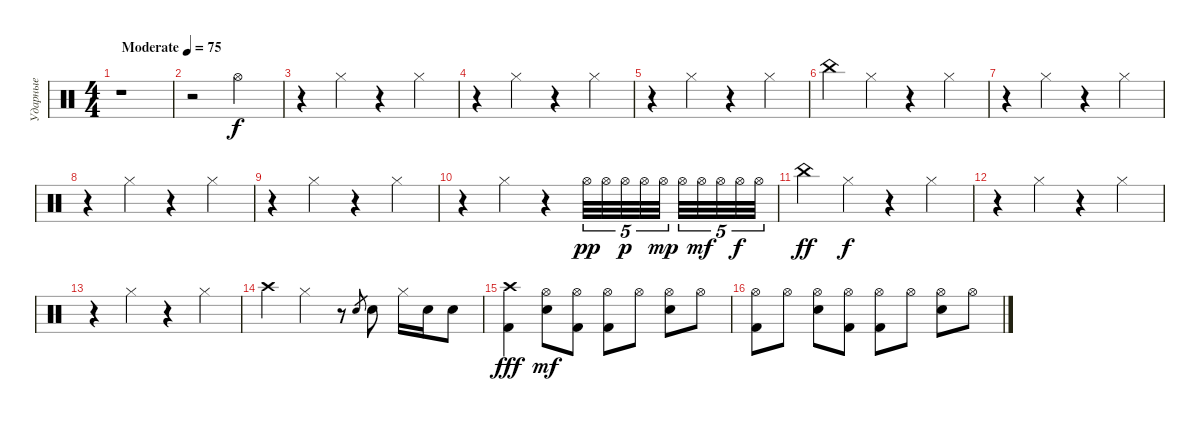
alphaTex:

\track ("Ударные" "Ударные") {instrument percussion}
\staff {score}
\articulation defaults
\ts (4 4)
\tempo (75 "Moderate")
\clef neutral
\ks c
r.1{dy f} |
r.2 "Hi-Hat (open)".2 |
r.4 "Hi-Hat (closed)".4 r.4 "Hi-Hat (closed)".4 |
r.4 "Hi-Hat (closed)".4 r.4 "Hi-Hat (closed)".4 |
r.4 "Hi-Hat (closed)".4 r.4 "Hi-Hat (closed)".4 |
"China (hit)".4 "Hi-Hat (closed)".4 r.4 "Hi-Hat (closed)".4 |
r.4 "Hi-Hat (closed)".4 r.4 "Hi-Hat (closed)".4 |
r.4 "Hi-Hat (closed)".4 r.4 "Hi-Hat (closed)".4 |
r.4 "Hi-Hat (closed)".4 r.4 "Hi-Hat (closed)".4 |
r.4 "Hi-Hat (closed)".4 r.4 "Hi-Hat (open)".32{tu (5 4) dy pp} "Hi-Hat (open)".32{tu (5 4)} "Hi-Hat (open)".32{tu (5 4) dy p} "Hi-Hat (open)".32{tu (5 4)} "Hi-Hat (open)".32{tu (5 4) dy mp beam splitsecondary} "Hi-Hat (open)".32{tu (5 4)} "Hi-Hat (open)".32{tu (5 4) dy mf} "Hi-Hat (open)".32{tu (5 4)} "Hi-Hat (open)".32{tu (5 4) dy f} "Hi-Hat (open)".32{tu (5 4)} |
"China (hit)".4{dy ff} "Hi-Hat (closed)".4{dy f} r.4 "Hi-Hat (closed)".4 |
r.4 "Hi-Hat (closed)".4 r.4 "Hi-Hat (closed)".4 |
r.4 "Hi-Hat (closed)".4 r.4 "Hi-Hat (closed)".4 |
"Crash high (hit)".4 "Hi-Hat (closed)".4 r.8 "Snare (hit) 2".8{gr} "Snare (hit) 2".8 "Hi-Hat (closed)".16 "Snare (hit) 2".16 "Snare (hit) 2".8 |
("Kick (hit) 2" "Crash high (hit)").4{dy fff} ("Snare (hit) 2" "Hi-Hat (open)").8{dy mf} ("Kick (hit) 2" "Hi-Hat (open)").8 ("Kick (hit) 2" "Hi-Hat (open)").8 "Hi-Hat (open)".8 ("Snare (hit) 2" "Hi-Hat (open)").8 "Hi-Hat (open)".8 |
("Kick (hit) 2" "Hi-Hat (open)").8 "Hi-Hat (open)".8 ("Snare (hit) 2" "Hi-Hat (open)").8 ("Kick (hit) 2" "Hi-Hat (open)").8 ("Kick (hit) 2" "Hi-Hat (open)").8 "Hi-Hat (open)".8 ("Snare (hit) 2" "Hi-Hat (open)").8 "Hi-Hat (open)".8
